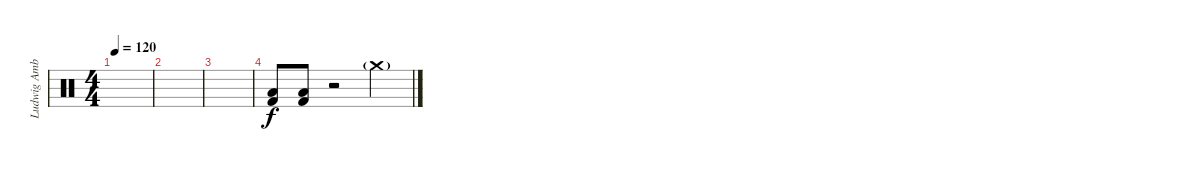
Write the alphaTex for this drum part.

\track ("Ludwig Amber Vistalite / 2x Bass Pedal" "Ludwig Amb") {instrument percussion}
\staff {score}
\articulation defaults
\ts (4 4)
\tempo 120
\clef neutral
\ks c
|
|
|
("Low Tom (hit)" "Kick (hit) 2").8{volume 6} ("Low Tom (hit)" "Kick (hit) 2").8 r.2 "Crash medium (hit)"{g}.4
